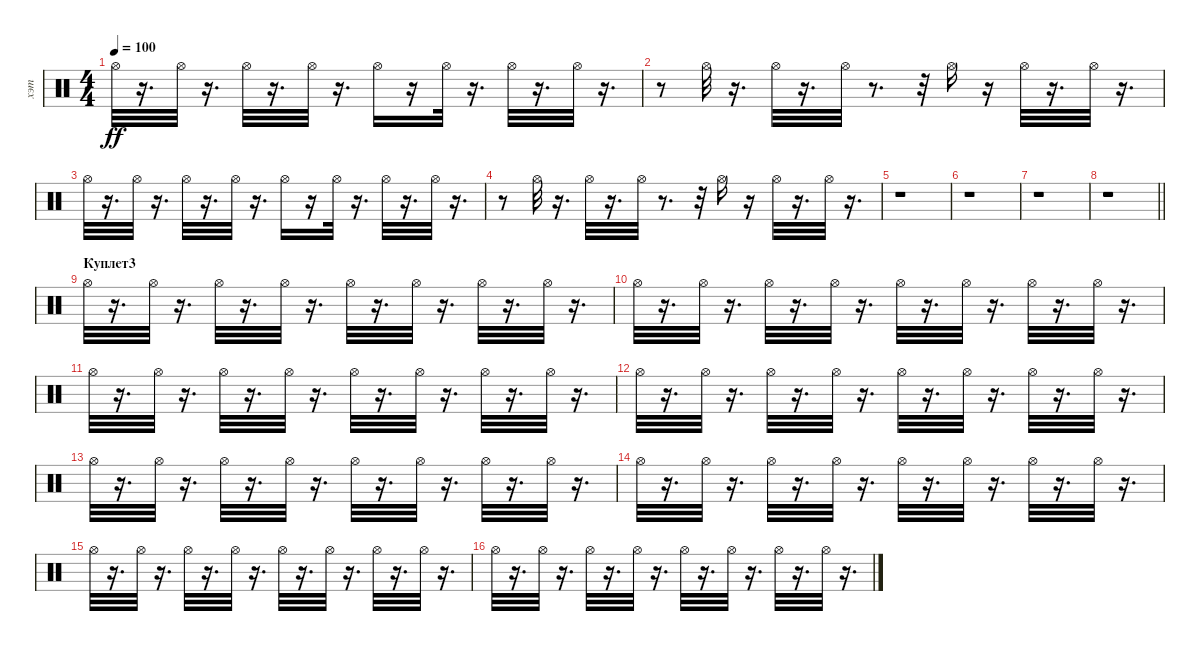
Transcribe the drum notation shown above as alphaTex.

\track ("хэт" "хэт") {instrument percussion}
\staff {score}
\articulation defaults
\ts (4 4)
\tempo 100
\clef neutral
\ks c "Hi-Hat (open)".32{dy ff}
r.16{d} "Hi-Hat (open)".32 r.16{d} "Hi-Hat (open)".32 r.16{d} "Hi-Hat (open)".32 r.16{d} "Hi-Hat (open)".16 r.16 "Hi-Hat (open)".32 r.16{d} "Hi-Hat (open)".32 r.16{d} "Hi-Hat (open)".32 r.16{d} |
r.8 "Hi-Hat (open)".32 r.16{d} "Hi-Hat (open)".32 r.16{d} "Hi-Hat (open)".32 r.8{d} r.32 "Hi-Hat (open)".16 r.16 "Hi-Hat (open)".32 r.16{d} "Hi-Hat (open)".32 r.16{d} |
"Hi-Hat (open)".32 r.16{d} "Hi-Hat (open)".32 r.16{d} "Hi-Hat (open)".32 r.16{d} "Hi-Hat (open)".32 r.16{d} "Hi-Hat (open)".16 r.16 "Hi-Hat (open)".32 r.16{d} "Hi-Hat (open)".32 r.16{d} "Hi-Hat (open)".32 r.16{d} |
r.8 "Hi-Hat (open)".32 r.16{d} "Hi-Hat (open)".32 r.16{d} "Hi-Hat (open)".32 r.8{d} r.32 "Hi-Hat (open)".16 r.16 "Hi-Hat (open)".32 r.16{d} "Hi-Hat (open)".32 r.16{d} |
r.1 |
r.1 |
r.1 |
\barLineRight lightlight
r.1 |
\section ("" "Куплет3")
"Hi-Hat (open)".32 r.16{d} "Hi-Hat (open)".32 r.16{d} "Hi-Hat (open)".32 r.16{d} "Hi-Hat (open)".32 r.16{d} "Hi-Hat (open)".32 r.16{d} "Hi-Hat (open)".32 r.16{d} "Hi-Hat (open)".32 r.16{d} "Hi-Hat (open)".32 r.16{d} |
"Hi-Hat (open)".32 r.16{d} "Hi-Hat (open)".32 r.16{d} "Hi-Hat (open)".32 r.16{d} "Hi-Hat (open)".32 r.16{d} "Hi-Hat (open)".32 r.16{d} "Hi-Hat (open)".32 r.16{d} "Hi-Hat (open)".32 r.16{d} "Hi-Hat (open)".32 r.16{d} |
"Hi-Hat (open)".32 r.16{d} "Hi-Hat (open)".32 r.16{d} "Hi-Hat (open)".32 r.16{d} "Hi-Hat (open)".32 r.16{d} "Hi-Hat (open)".32 r.16{d} "Hi-Hat (open)".32 r.16{d} "Hi-Hat (open)".32 r.16{d} "Hi-Hat (open)".32 r.16{d} |
"Hi-Hat (open)".32 r.16{d} "Hi-Hat (open)".32 r.16{d} "Hi-Hat (open)".32 r.16{d} "Hi-Hat (open)".32 r.16{d} "Hi-Hat (open)".32 r.16{d} "Hi-Hat (open)".32 r.16{d} "Hi-Hat (open)".32 r.16{d} "Hi-Hat (open)".32 r.16{d} |
"Hi-Hat (open)".32 r.16{d} "Hi-Hat (open)".32 r.16{d} "Hi-Hat (open)".32 r.16{d} "Hi-Hat (open)".32 r.16{d} "Hi-Hat (open)".32 r.16{d} "Hi-Hat (open)".32 r.16{d} "Hi-Hat (open)".32 r.16{d} "Hi-Hat (open)".32 r.16{d} |
"Hi-Hat (open)".32 r.16{d} "Hi-Hat (open)".32 r.16{d} "Hi-Hat (open)".32 r.16{d} "Hi-Hat (open)".32 r.16{d} "Hi-Hat (open)".32 r.16{d} "Hi-Hat (open)".32 r.16{d} "Hi-Hat (open)".32 r.16{d} "Hi-Hat (open)".32 r.16{d} |
"Hi-Hat (open)".32 r.16{d} "Hi-Hat (open)".32 r.16{d} "Hi-Hat (open)".32 r.16{d} "Hi-Hat (open)".32 r.16{d} "Hi-Hat (open)".32 r.16{d} "Hi-Hat (open)".32 r.16{d} "Hi-Hat (open)".32 r.16{d} "Hi-Hat (open)".32 r.16{d} |
"Hi-Hat (open)".32 r.16{d} "Hi-Hat (open)".32 r.16{d} "Hi-Hat (open)".32 r.16{d} "Hi-Hat (open)".32 r.16{d} "Hi-Hat (open)".32 r.16{d} "Hi-Hat (open)".32 r.16{d} "Hi-Hat (open)".32 r.16{d} "Hi-Hat (open)".32 r.16{d}
